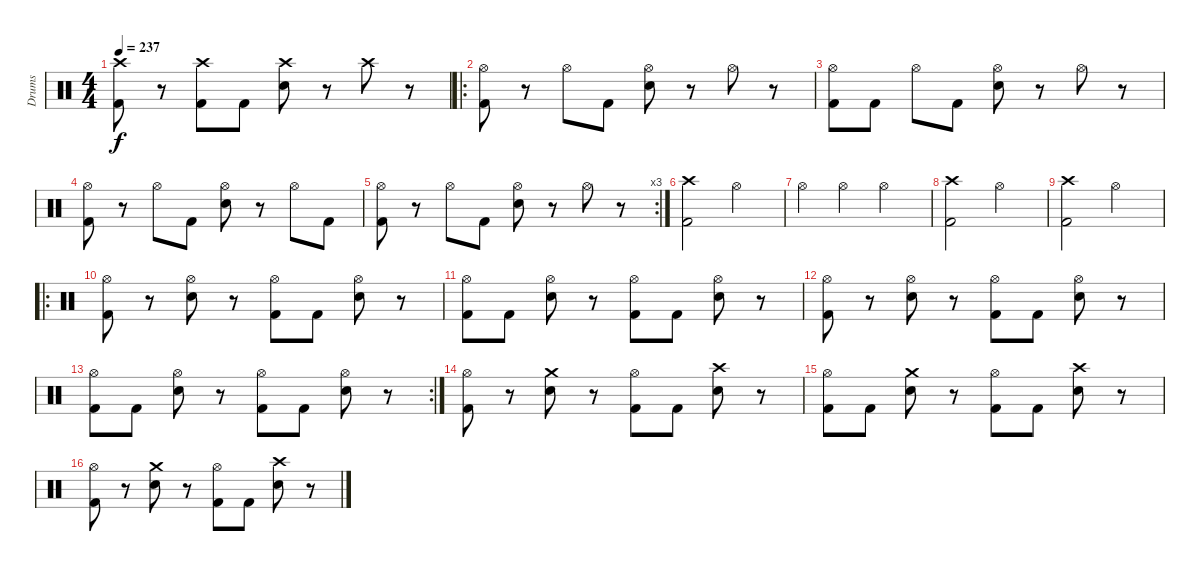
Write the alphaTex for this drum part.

\track ("Drums" "Drums") {instrument percussion}
\staff {score}
\articulation defaults
\ts (4 4)
\tempo 237
\clef neutral
\ks c
("Crash high (hit)" "Kick (hit) 2").8{dy f} r.8 ("Crash high (hit)" "Kick (hit) 2").8 "Kick (hit) 2".8 ("Crash high (hit)" "Snare (hit) 2").8 r.8 "Crash high (hit)".8 r.8 |
\ro
("Hi-Hat (open)" "Kick (hit) 2").8 r.8 "Hi-Hat (open)".8 "Kick (hit) 2".8 ("Hi-Hat (open)" "Snare (hit) 2").8 r.8 "Hi-Hat (open)".8 r.8 |
("Hi-Hat (open)" "Kick (hit) 2").8 "Kick (hit) 2".8 "Hi-Hat (open)".8 "Kick (hit) 2".8 ("Hi-Hat (open)" "Snare (hit) 2").8 r.8 "Hi-Hat (open)".8 r.8 |
("Hi-Hat (open)" "Kick (hit) 2").8 r.8 "Hi-Hat (open)".8 "Kick (hit) 2".8 ("Hi-Hat (open)" "Snare (hit) 2").8 r.8 "Hi-Hat (open)".8 "Kick (hit) 2".8 |
\rc 3
("Hi-Hat (open)" "Kick (hit) 2").8 r.8 "Hi-Hat (open)".8 "Kick (hit) 2".8 ("Hi-Hat (open)" "Snare (hit) 2").8 r.8 "Hi-Hat (open)".8 r.8 |
("Crash high (hit)" "Kick (hit) 2").2 "Hi-Hat (open)".2 |
"Hi-Hat (open)".4 "Hi-Hat (open)".4 "Hi-Hat (open)".2 |
("Crash high (hit)" "Kick (hit) 2").2 "Hi-Hat (open)".2 |
("Crash high (hit)" "Kick (hit) 2").2 "Hi-Hat (open)".2 |
\ro
("Hi-Hat (open)" "Kick (hit) 2").8 r.8 ("Hi-Hat (open)" "Snare (hit) 2").8 r.8 ("Hi-Hat (open)" "Kick (hit) 2").8 "Kick (hit) 2".8 ("Hi-Hat (open)" "Snare (hit) 2").8 r.8 |
("Hi-Hat (open)" "Kick (hit) 2").8 "Kick (hit) 2".8 ("Hi-Hat (open)" "Snare (hit) 2").8 r.8 ("Hi-Hat (open)" "Kick (hit) 2").8 "Kick (hit) 2".8 ("Hi-Hat (open)" "Snare (hit) 2").8 r.8 |
("Hi-Hat (open)" "Kick (hit) 2").8 r.8 ("Hi-Hat (open)" "Snare (hit) 2").8 r.8 ("Hi-Hat (open)" "Kick (hit) 2").8 "Kick (hit) 2".8 ("Hi-Hat (open)" "Snare (hit) 2").8 r.8 |
\rc 2
("Hi-Hat (open)" "Kick (hit) 2").8 "Kick (hit) 2".8 ("Hi-Hat (open)" "Snare (hit) 2").8 r.8 ("Hi-Hat (open)" "Kick (hit) 2").8 "Kick (hit) 2".8 ("Hi-Hat (open)" "Snare (hit) 2").8 r.8 |
("Hi-Hat (open)" "Kick (hit) 2").8 r.8 ("Crash medium (hit)" "Snare (hit) 2").8 r.8 ("Hi-Hat (open)" "Kick (hit) 2").8 "Kick (hit) 2".8 ("Crash high (hit)" "Snare (hit) 2").8 r.8 |
("Hi-Hat (open)" "Kick (hit) 2").8 "Kick (hit) 2".8 ("Crash medium (hit)" "Snare (hit) 2").8 r.8 ("Hi-Hat (open)" "Kick (hit) 2").8 "Kick (hit) 2".8 ("Crash high (hit)" "Snare (hit) 2").8 r.8 |
("Hi-Hat (open)" "Kick (hit) 2").8 r.8 ("Crash medium (hit)" "Snare (hit) 2").8 r.8 ("Hi-Hat (open)" "Kick (hit) 2").8 "Kick (hit) 2".8 ("Crash high (hit)" "Snare (hit) 2").8 r.8
